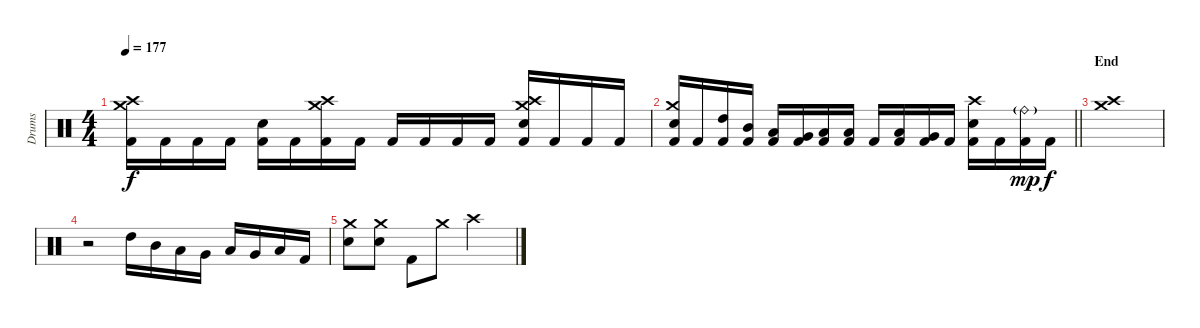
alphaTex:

\track ("Drums" "Drums") {instrument percussion}
\staff {score}
\articulation defaults
\ts (4 4)
\tempo 177
\clef neutral
\ks c
("Kick (hit) 2" "Crash high (hit)" "Crash medium (hit)").16{dy f} "Kick (hit) 2".16 "Kick (hit) 2".16 "Kick (hit) 2".16 ("Kick (hit) 2" "Snare (hit) 2").16 "Kick (hit) 2".16 ("Kick (hit) 2" "Crash high (hit)" "Crash medium (hit)").16 "Kick (hit) 2".16 "Kick (hit) 2".16 "Kick (hit) 2".16 "Kick (hit) 2".16 "Kick (hit) 2".16 ("Kick (hit) 2" "Snare (hit) 2" "Crash high (hit)" "Crash medium (hit)").16 "Kick (hit) 2".16 "Kick (hit) 2".16 "Kick (hit) 2".16 |
\barLineRight lightlight
("Kick (hit) 2" "Snare (hit) 2" "Crash medium (hit)").16 "Kick (hit) 2".16 ("Kick (hit) 2" "High Tom (hit)").16 ("Kick (hit) 2" "Mid Tom (hit)").16 ("Kick (hit) 2" "Low Tom (hit)").16 ("Kick (hit) 2" "Very Low Tom (hit)").16 ("Kick (hit) 2" "Low Floor Tom (hit)").16 ("Kick (hit) 2" "Low Floor Tom (hit)").16 "Kick (hit) 2".16 ("Kick (hit) 2" "Low Tom (hit)").16 ("Kick (hit) 2" "Very Low Tom (hit)").16 "Kick (hit) 2".16 ("Kick (hit) 2" "Snare (hit) 2" "Crash high (hit)").16 "Kick (hit) 2".16 ("Kick (hit) 2" "Ride (bell)"{g}).16{dy mp} "Kick (hit) 2".16{dy f} |
\section ("" "End")
("Crash high (hit)" "Crash medium (hit)").1 |
r.2 "High Tom (hit)".16 "Mid Tom (hit)".16 "Low Tom (hit)".16 "Very Low Tom (hit)".16 "Low Tom (hit)".16 "Very Low Tom (hit)".16 "Low Floor Tom (hit)".16 "Kick (hit) 2".16 |
("Snare (hit) 2" "Crash medium (hit)").8 ("Snare (hit) 2" "Crash medium (hit)").8 "Kick (hit) 2".8 "Crash medium (hit)".8 "Crash high (hit)".2
